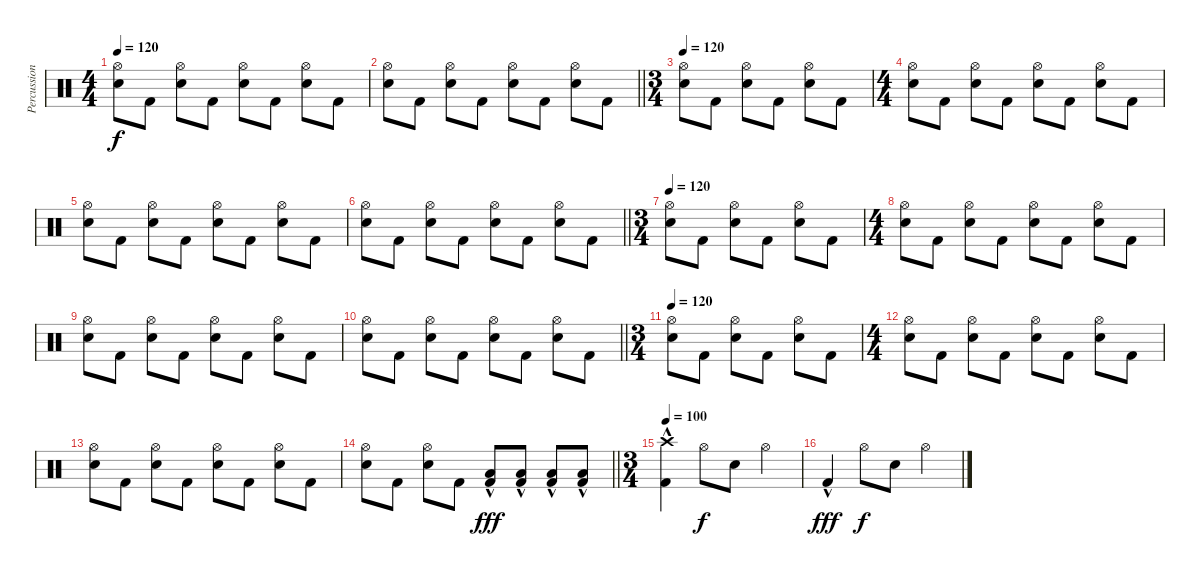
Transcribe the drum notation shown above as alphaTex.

\track ("Percussion" "Percussion") {instrument percussion}
\staff {score}
\articulation defaults
\ts (4 4)
\tempo 120
\clef neutral
\ks c
("Hi-Hat (open)" "Snare (hit) 2").8{dy f} "Kick (hit) 2".8 ("Hi-Hat (open)" "Snare (hit) 2").8 "Kick (hit) 2".8 ("Hi-Hat (open)" "Snare (hit) 2").8 "Kick (hit) 2".8 ("Hi-Hat (open)" "Snare (hit) 2").8 "Kick (hit) 2".8 |
\barLineRight lightlight
("Hi-Hat (open)" "Snare (hit) 2").8 "Kick (hit) 2".8 ("Hi-Hat (open)" "Snare (hit) 2").8 "Kick (hit) 2".8 ("Hi-Hat (open)" "Snare (hit) 2").8 "Kick (hit) 2".8 ("Hi-Hat (open)" "Snare (hit) 2").8 "Kick (hit) 2".8 |
\ts (3 4)
\tempo 120
("Hi-Hat (open)" "Snare (hit) 2").8 "Kick (hit) 2".8 ("Hi-Hat (open)" "Snare (hit) 2").8 "Kick (hit) 2".8 ("Hi-Hat (open)" "Snare (hit) 2").8 "Kick (hit) 2".8 |
\ts (4 4)
("Hi-Hat (open)" "Snare (hit) 2").8 "Kick (hit) 2".8 ("Hi-Hat (open)" "Snare (hit) 2").8 "Kick (hit) 2".8 ("Hi-Hat (open)" "Snare (hit) 2").8 "Kick (hit) 2".8 ("Hi-Hat (open)" "Snare (hit) 2").8 "Kick (hit) 2".8 |
("Hi-Hat (open)" "Snare (hit) 2").8 "Kick (hit) 2".8 ("Hi-Hat (open)" "Snare (hit) 2").8 "Kick (hit) 2".8 ("Hi-Hat (open)" "Snare (hit) 2").8 "Kick (hit) 2".8 ("Hi-Hat (open)" "Snare (hit) 2").8 "Kick (hit) 2".8 |
\barLineRight lightlight
("Hi-Hat (open)" "Snare (hit) 2").8 "Kick (hit) 2".8 ("Hi-Hat (open)" "Snare (hit) 2").8 "Kick (hit) 2".8 ("Hi-Hat (open)" "Snare (hit) 2").8 "Kick (hit) 2".8 ("Hi-Hat (open)" "Snare (hit) 2").8 "Kick (hit) 2".8 |
\ts (3 4)
\tempo 120
("Hi-Hat (open)" "Snare (hit) 2").8 "Kick (hit) 2".8 ("Hi-Hat (open)" "Snare (hit) 2").8 "Kick (hit) 2".8 ("Hi-Hat (open)" "Snare (hit) 2").8 "Kick (hit) 2".8 |
\ts (4 4)
("Hi-Hat (open)" "Snare (hit) 2").8 "Kick (hit) 2".8 ("Hi-Hat (open)" "Snare (hit) 2").8 "Kick (hit) 2".8 ("Hi-Hat (open)" "Snare (hit) 2").8 "Kick (hit) 2".8 ("Hi-Hat (open)" "Snare (hit) 2").8 "Kick (hit) 2".8 |
("Hi-Hat (open)" "Snare (hit) 2").8 "Kick (hit) 2".8 ("Hi-Hat (open)" "Snare (hit) 2").8 "Kick (hit) 2".8 ("Hi-Hat (open)" "Snare (hit) 2").8 "Kick (hit) 2".8 ("Hi-Hat (open)" "Snare (hit) 2").8 "Kick (hit) 2".8 |
\barLineRight lightlight
("Hi-Hat (open)" "Snare (hit) 2").8 "Kick (hit) 2".8 ("Hi-Hat (open)" "Snare (hit) 2").8 "Kick (hit) 2".8 ("Hi-Hat (open)" "Snare (hit) 2").8 "Kick (hit) 2".8 ("Hi-Hat (open)" "Snare (hit) 2").8 "Kick (hit) 2".8 |
\ts (3 4)
\tempo 120
("Hi-Hat (open)" "Snare (hit) 2").8 "Kick (hit) 2".8 ("Hi-Hat (open)" "Snare (hit) 2").8 "Kick (hit) 2".8 ("Hi-Hat (open)" "Snare (hit) 2").8 "Kick (hit) 2".8 |
\ts (4 4)
("Hi-Hat (open)" "Snare (hit) 2").8 "Kick (hit) 2".8 ("Hi-Hat (open)" "Snare (hit) 2").8 "Kick (hit) 2".8 ("Hi-Hat (open)" "Snare (hit) 2").8 "Kick (hit) 2".8 ("Hi-Hat (open)" "Snare (hit) 2").8 "Kick (hit) 2".8 |
("Hi-Hat (open)" "Snare (hit) 2").8 "Kick (hit) 2".8 ("Hi-Hat (open)" "Snare (hit) 2").8 "Kick (hit) 2".8 ("Hi-Hat (open)" "Snare (hit) 2").8 "Kick (hit) 2".8 ("Hi-Hat (open)" "Snare (hit) 2").8 "Kick (hit) 2".8 |
\barLineRight lightlight
("Hi-Hat (open)" "Snare (hit) 2").8 "Kick (hit) 2".8 ("Hi-Hat (open)" "Snare (hit) 2").8 "Kick (hit) 2".8 ("Low Floor Tom (hit)"{hac} "Kick (hit) 2").8{dy fff} ("Low Floor Tom (hit)"{hac} "Kick (hit) 2").8 ("Low Floor Tom (hit)"{hac} "Kick (hit) 2").8 ("Low Floor Tom (hit)"{hac} "Kick (hit) 2").8 |
\ts (3 4)
\tempo 100
("Crash high (hit)" "Kick (hit) 2"{hac}).4 "Hi-Hat (open)".8{dy f} "Snare (hit) 2".8 "Hi-Hat (open)".4 |
"Kick (hit) 2"{hac}.4{dy fff} "Hi-Hat (open)".8{dy f} "Snare (hit) 2".8 "Hi-Hat (open)".4
